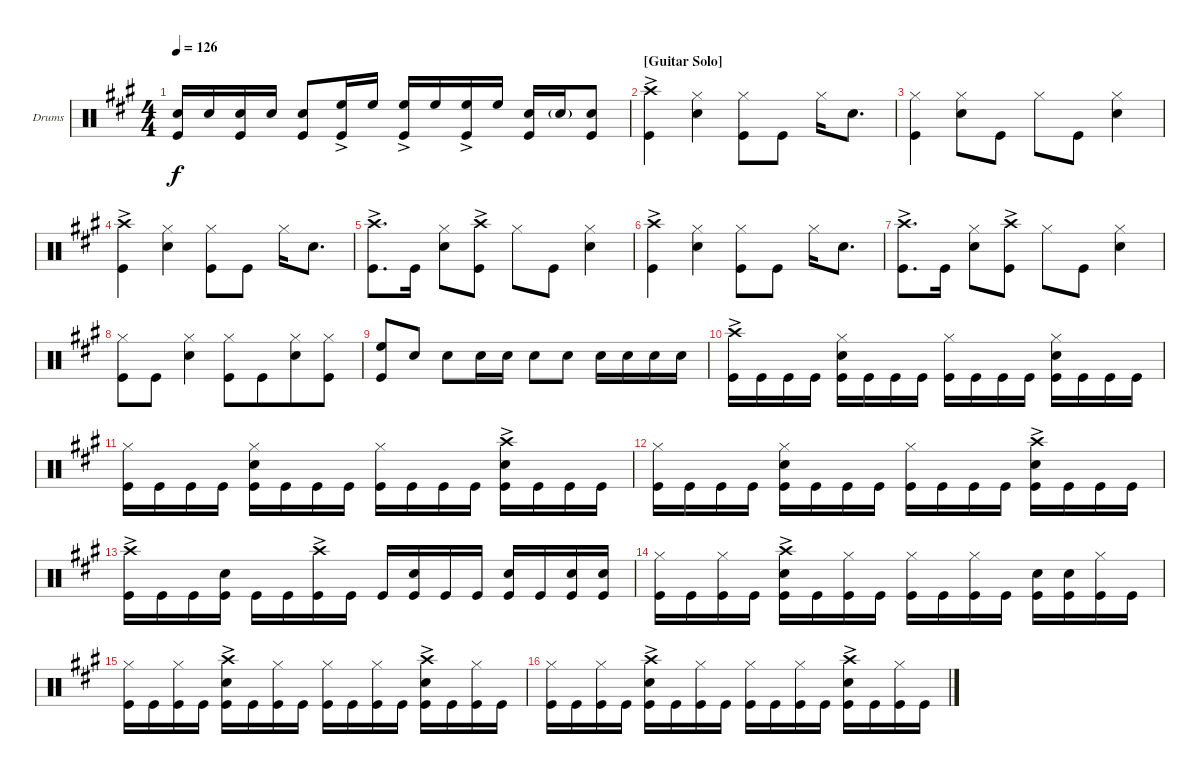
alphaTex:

\defaultSystemsLayout 4
\bracketExtendMode groupsimilarinstruments
\firstSystemTrackNameOrientation horizontal
\otherSystemsTrackNameOrientation horizontal
\track ("Drums" "Drums") {instrument percussion}
\staff {score}
\articulation defaults
\ts (4 4)
\tempo 126
\clef neutral
\ks a
("Kick (hit)" "Snare (hit) 2").16{dy f} "Snare (hit) 2".16 ("Kick (hit)" "Snare (hit) 2").16 "Snare (hit) 2".16 ("Kick (hit)" "Snare (hit) 2").8 ("Kick (hit)" "High Floor Tom (hit)"{ac}).16 "High Floor Tom (hit)".16 ("Kick (hit)" "High Floor Tom (hit)"{ac}).16 "High Floor Tom (hit)".16 ("Kick (hit)" "High Floor Tom (hit)"{ac}).16 "High Floor Tom (hit)".16 ("Kick (hit)" "Snare (hit) 2").16 "Snare (hit) 2"{g}.16 ("Kick (hit)" "Snare (hit) 2").8 |
\section ("" "[Guitar Solo]")
("Kick (hit)" "Crash high (hit)"{ac}).4 ("Hi-Hat (closed)" "Snare (hit) 2").4 ("Kick (hit)" "Hi-Hat (closed)").8 "Kick (hit)".8 "Hi-Hat (closed)".16 "Snare (hit) 2".8{d} |
("Kick (hit)" "Hi-Hat (closed)").4 ("Snare (hit) 2" "Hi-Hat (closed)").8 "Kick (hit)".8 "Hi-Hat (closed)".8 "Kick (hit)".8 ("Snare (hit) 2" "Hi-Hat (closed)").4 |
("Kick (hit)" "Crash high (hit)"{ac}).4 ("Hi-Hat (closed)" "Snare (hit) 2").4 ("Kick (hit)" "Hi-Hat (closed)").8 "Kick (hit)".8 "Hi-Hat (closed)".16 "Snare (hit) 2".8{d} |
("Kick (hit)" "Crash high (hit)"{ac}).8{d} "Kick (hit)".16 ("Snare (hit) 2" "Hi-Hat (closed)").8 ("Kick (hit)" "Crash high (hit)"{ac}).8 "Hi-Hat (closed)".8 "Kick (hit)".8 ("Snare (hit) 2" "Hi-Hat (closed)").4 |
("Kick (hit)" "Crash high (hit)"{ac}).4 ("Hi-Hat (closed)" "Snare (hit) 2").4 ("Kick (hit)" "Hi-Hat (closed)").8 "Kick (hit)".8 "Hi-Hat (closed)".16 "Snare (hit) 2".8{d} |
("Kick (hit)" "Crash high (hit)"{ac}).8{d} "Kick (hit)".16 ("Snare (hit) 2" "Hi-Hat (closed)").8 ("Kick (hit)" "Crash high (hit)"{ac}).8 "Hi-Hat (closed)".8 "Kick (hit)".8 ("Snare (hit) 2" "Hi-Hat (closed)").4 |
("Kick (hit)" "Hi-Hat (closed)").8 "Kick (hit)".8 ("Hi-Hat (closed)" "Snare (hit) 2").4 ("Kick (hit)" "Hi-Hat (closed)").8 "Kick (hit)".8{beam merge} ("Snare (hit) 2" "Hi-Hat (closed)").8 ("Kick (hit)" "Hi-Hat (closed)").8 |
("High Floor Tom (hit)" "Kick (hit)").8 "Snare (hit) 2".8 "Snare (hit) 2".8 "Snare (hit) 2".16 "Snare (hit) 2".16 "Snare (hit) 2".8 "Snare (hit) 2".8 "Snare (hit) 2".16 "Snare (hit) 2".16 "Snare (hit) 2".16 "Snare (hit) 2".16 |
("Kick (hit)" "Crash high (hit)"{ac}).16 "Kick (hit)".16 "Kick (hit)".16 "Kick (hit)".16 ("Kick (hit)" "Hi-Hat (closed)" "Snare (hit) 2").16 "Kick (hit)".16 "Kick (hit)".16 "Kick (hit)".16 ("Kick (hit)" "Hi-Hat (closed)").16 "Kick (hit)".16 "Kick (hit)".16 "Kick (hit)".16 ("Kick (hit)" "Hi-Hat (closed)" "Snare (hit) 2").16 "Kick (hit)".16 "Kick (hit)".16 "Kick (hit)".16 |
("Kick (hit)" "Hi-Hat (closed)").16 "Kick (hit)".16 "Kick (hit)".16 "Kick (hit)".16 ("Kick (hit)" "Hi-Hat (closed)" "Snare (hit) 2").16 "Kick (hit)".16 "Kick (hit)".16 "Kick (hit)".16 ("Kick (hit)" "Hi-Hat (closed)").16 "Kick (hit)".16 "Kick (hit)".16 "Kick (hit)".16 ("Kick (hit)" "Snare (hit) 2" "Crash high (hit)"{ac}).16 "Kick (hit)".16 "Kick (hit)".16 "Kick (hit)".16 |
("Kick (hit)" "Hi-Hat (closed)").16 "Kick (hit)".16 "Kick (hit)".16 "Kick (hit)".16 ("Kick (hit)" "Hi-Hat (closed)" "Snare (hit) 2").16 "Kick (hit)".16 "Kick (hit)".16 "Kick (hit)".16 ("Kick (hit)" "Hi-Hat (closed)").16 "Kick (hit)".16 "Kick (hit)".16 "Kick (hit)".16 ("Kick (hit)" "Snare (hit) 2" "Crash high (hit)"{ac}).16 "Kick (hit)".16 "Kick (hit)".16 "Kick (hit)".16 |
("Kick (hit)" "Crash high (hit)"{ac}).16 "Kick (hit)".16 "Kick (hit)".16 ("Kick (hit)" "Snare (hit) 2").16 "Kick (hit)".16 "Kick (hit)".16 ("Kick (hit)" "Crash high (hit)"{ac}).16 "Kick (hit)".16 "Kick (hit)".16 ("Kick (hit)" "Snare (hit) 2").16 "Kick (hit)".16 "Kick (hit)".16 ("Kick (hit)" "Snare (hit) 2").16 "Kick (hit)".16 ("Kick (hit)" "Snare (hit) 2").16 ("Kick (hit)" "Snare (hit) 2").16 |
("Kick (hit)" "Hi-Hat (closed)").16 "Kick (hit)".16 ("Kick (hit)" "Hi-Hat (closed)").16 "Kick (hit)".16 ("Kick (hit)" "Snare (hit) 2" "Crash high (hit)"{ac}).16 "Kick (hit)".16 ("Kick (hit)" "Hi-Hat (closed)").16 "Kick (hit)".16 ("Kick (hit)" "Hi-Hat (closed)").16 "Kick (hit)".16 ("Kick (hit)" "Hi-Hat (closed)").16 "Kick (hit)".16 ("Kick (hit)" "Snare (hit) 2").16 ("Kick (hit)" "Snare (hit) 2").16 ("Kick (hit)" "Hi-Hat (closed)").16 "Kick (hit)".16 |
("Kick (hit)" "Hi-Hat (closed)").16 "Kick (hit)".16 ("Kick (hit)" "Hi-Hat (closed)").16 "Kick (hit)".16 ("Kick (hit)" "Snare (hit) 2" "Crash high (hit)"{ac}).16 "Kick (hit)".16 ("Kick (hit)" "Hi-Hat (closed)").16 "Kick (hit)".16 ("Kick (hit)" "Hi-Hat (closed)").16 "Kick (hit)".16 ("Kick (hit)" "Hi-Hat (closed)").16 "Kick (hit)".16 ("Kick (hit)" "Snare (hit) 2" "Crash high (hit)"{ac}).16 "Kick (hit)".16 ("Kick (hit)" "Hi-Hat (closed)").16 "Kick (hit)".16 |
("Kick (hit)" "Hi-Hat (closed)").16 "Kick (hit)".16 ("Kick (hit)" "Hi-Hat (closed)").16 "Kick (hit)".16 ("Kick (hit)" "Snare (hit) 2" "Crash high (hit)"{ac}).16 "Kick (hit)".16 ("Kick (hit)" "Hi-Hat (closed)").16 "Kick (hit)".16 ("Kick (hit)" "Hi-Hat (closed)").16 "Kick (hit)".16 ("Kick (hit)" "Hi-Hat (closed)").16 "Kick (hit)".16 ("Kick (hit)" "Snare (hit) 2" "Crash high (hit)"{ac}).16 "Kick (hit)".16 ("Kick (hit)" "Hi-Hat (closed)").16 "Kick (hit)".16
